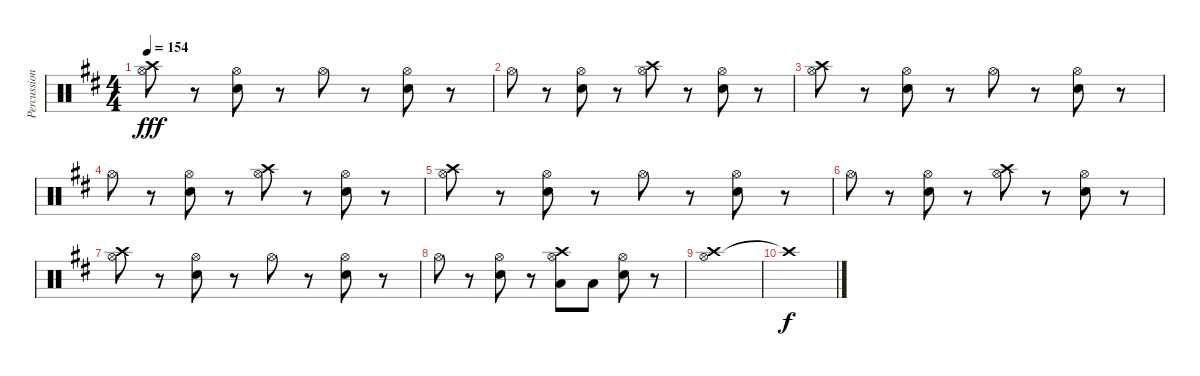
\track ("Percussion (Mike Felumlee" "Percussion") {instrument percussion}
\staff {score}
\articulation defaults
\ts (4 4)
\tempo 154
\clef neutral
\ks bminor
("Hi-Hat (open)" "Crash high (hit)").8{dy fff} r.8 ("Hi-Hat (open)" "Electric Snare (hit)").8 r.8 "Hi-Hat (open)".8 r.8 ("Hi-Hat (open)" "Electric Snare (hit)").8 r.8 |
"Hi-Hat (open)".8 r.8 ("Hi-Hat (open)" "Electric Snare (hit)").8 r.8 ("Hi-Hat (open)" "Crash high (hit)").8 r.8 ("Hi-Hat (open)" "Electric Snare (hit)").8 r.8 |
("Hi-Hat (open)" "Crash high (hit)").8 r.8 ("Hi-Hat (open)" "Electric Snare (hit)").8 r.8 "Hi-Hat (open)".8 r.8 ("Hi-Hat (open)" "Electric Snare (hit)").8 r.8 |
"Hi-Hat (open)".8 r.8 ("Hi-Hat (open)" "Electric Snare (hit)").8 r.8 ("Hi-Hat (open)" "Crash high (hit)").8 r.8 ("Hi-Hat (open)" "Electric Snare (hit)").8 r.8 |
("Hi-Hat (open)" "Crash high (hit)").8 r.8 ("Hi-Hat (open)" "Electric Snare (hit)").8 r.8 "Hi-Hat (open)".8 r.8 ("Hi-Hat (open)" "Electric Snare (hit)").8 r.8 |
"Hi-Hat (open)".8 r.8 ("Hi-Hat (open)" "Electric Snare (hit)").8 r.8 ("Hi-Hat (open)" "Crash high (hit)").8 r.8 ("Hi-Hat (open)" "Electric Snare (hit)").8 r.8 |
("Hi-Hat (open)" "Crash high (hit)").8 r.8 ("Hi-Hat (open)" "Electric Snare (hit)").8 r.8 "Hi-Hat (open)".8 r.8 ("Hi-Hat (open)" "Electric Snare (hit)").8 r.8 |
"Hi-Hat (open)".8 r.8 ("Hi-Hat (open)" "Electric Snare (hit)").8 r.8 ("Hi-Hat (open)" "Crash high (hit)" "Low Floor Tom (hit)").8 "Low Floor Tom (hit)".8 ("Hi-Hat (open)" "Electric Snare (hit)").8 r.8 |
("Hi-Hat (open)" "Crash high (hit)").1 |
"Crash high (hit)"{t}.1{dy f}
